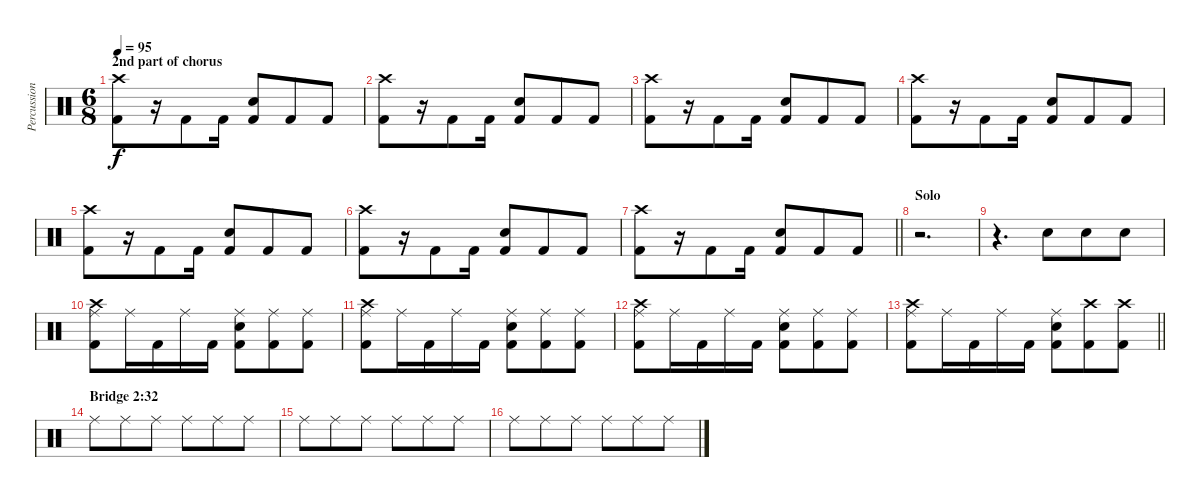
\track ("Percussion" "Percussion") {instrument percussion}
\staff {score}
\articulation defaults
\ts (6 8)
\section ("" "2nd part of chorus")
\tempo 95
\clef neutral
\ks c
("Crash high (hit)" "Kick (hit) 2").8{dy f} r.16 "Kick (hit) 2".8 "Kick (hit) 2".16 ("Snare (hit) 2" "Kick (hit) 2").8 "Kick (hit) 2".8 "Kick (hit) 2".8 |
("Crash high (hit)" "Kick (hit) 2").8 r.16 "Kick (hit) 2".8 "Kick (hit) 2".16 ("Snare (hit) 2" "Kick (hit) 2").8 "Kick (hit) 2".8 "Kick (hit) 2".8 |
("Crash high (hit)" "Kick (hit) 2").8 r.16 "Kick (hit) 2".8 "Kick (hit) 2".16 ("Snare (hit) 2" "Kick (hit) 2").8 "Kick (hit) 2".8 "Kick (hit) 2".8 |
("Crash high (hit)" "Kick (hit) 2").8 r.16 "Kick (hit) 2".8 "Kick (hit) 2".16 ("Snare (hit) 2" "Kick (hit) 2").8 "Kick (hit) 2".8 "Kick (hit) 2".8 |
("Crash high (hit)" "Kick (hit) 2").8 r.16 "Kick (hit) 2".8 "Kick (hit) 2".16 ("Snare (hit) 2" "Kick (hit) 2").8 "Kick (hit) 2".8 "Kick (hit) 2".8 |
("Crash high (hit)" "Kick (hit) 2").8 r.16 "Kick (hit) 2".8 "Kick (hit) 2".16 ("Snare (hit) 2" "Kick (hit) 2").8 "Kick (hit) 2".8 "Kick (hit) 2".8 |
\barLineRight lightlight
("Crash high (hit)" "Kick (hit) 2").8 r.16 "Kick (hit) 2".8 "Kick (hit) 2".16 ("Snare (hit) 2" "Kick (hit) 2").8 "Kick (hit) 2".8 "Kick (hit) 2".8 |
\section ("" "Solo")
r.2{d} |
r.4{d} "Snare (hit) 2".8 "Snare (hit) 2".8 "Snare (hit) 2".8 |
("Ride (middle)" "Crash high (hit)" "Kick (hit) 2").8 "Ride (middle)".16 "Kick (hit) 2".16 "Ride (middle)".16 "Kick (hit) 2".16 ("Ride (middle)" "Snare (hit) 2" "Kick (hit) 2").8 ("Ride (middle)" "Kick (hit) 2").8 ("Ride (middle)" "Kick (hit) 2").8 |
("Ride (middle)" "Crash high (hit)" "Kick (hit) 2").8 "Ride (middle)".16 "Kick (hit) 2".16 "Ride (middle)".16 "Kick (hit) 2".16 ("Ride (middle)" "Snare (hit) 2" "Kick (hit) 2").8 ("Ride (middle)" "Kick (hit) 2").8 ("Ride (middle)" "Kick (hit) 2").8 |
("Ride (middle)" "Crash high (hit)" "Kick (hit) 2").8 "Ride (middle)".16 "Kick (hit) 2".16 "Ride (middle)".16 "Kick (hit) 2".16 ("Ride (middle)" "Snare (hit) 2" "Kick (hit) 2").8 ("Ride (middle)" "Kick (hit) 2").8 ("Ride (middle)" "Kick (hit) 2").8 |
\barLineRight lightlight
("Ride (middle)" "Crash high (hit)" "Kick (hit) 2").8 "Ride (middle)".16 "Kick (hit) 2".16 "Ride (middle)".16 "Kick (hit) 2".16 ("Ride (middle)" "Snare (hit) 2" "Kick (hit) 2").8 ("Crash high (hit)" "Kick (hit) 2").8 ("Crash high (hit)" "Kick (hit) 2").8 |
\section ("" "Bridge 2:32")
"Ride (middle)".8 "Ride (middle)".8 "Ride (middle)".8 "Ride (middle)".8 "Ride (middle)".8 "Ride (middle)".8 |
"Ride (middle)".8 "Ride (middle)".8 "Ride (middle)".8 "Ride (middle)".8 "Ride (middle)".8 "Ride (middle)".8 |
"Ride (middle)".8 "Ride (middle)".8 "Ride (middle)".8 "Ride (middle)".8 "Ride (middle)".8 "Ride (middle)".8
